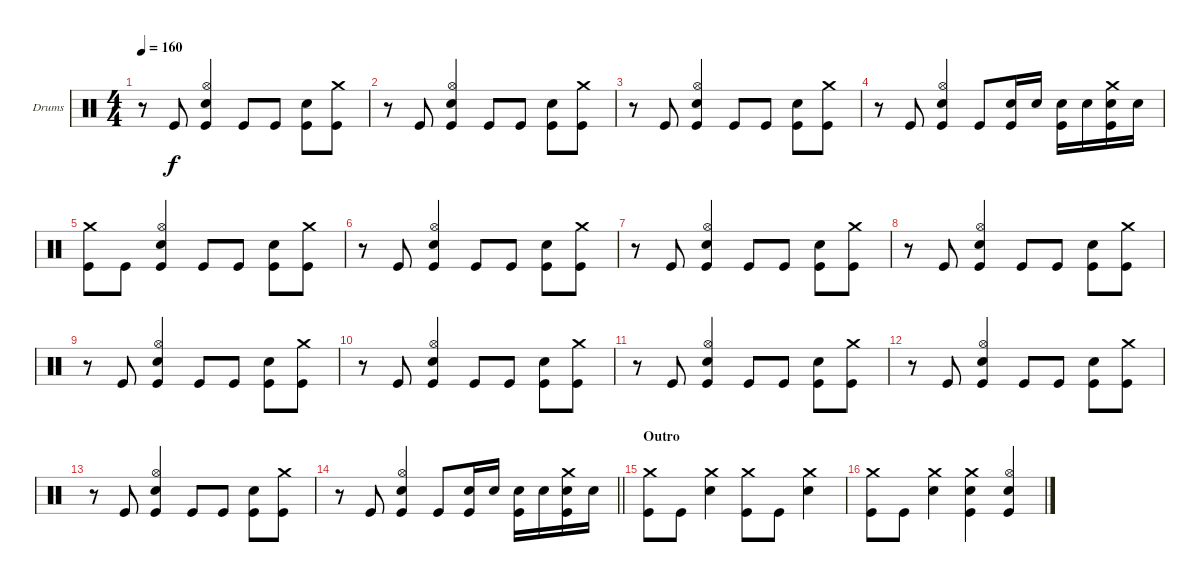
\bracketExtendMode groupsimilarinstruments
\firstSystemTrackNameOrientation horizontal
\otherSystemsTrackNameOrientation horizontal
\track ("Drum" "Drums") {instrument percussion}
\staff {score}
\articulation defaults
\ts (4 4)
\tempo 160
\clef neutral
\ks c
r.8{dy f} "Kick (hit)".8 ("Hi-Hat (open)" "Snare (hit) 2" "Kick (hit)").4 "Kick (hit)".8 "Kick (hit)".8 ("Snare (hit) 2" "Kick (hit)").8 ("Crash medium (hit)" "Kick (hit)").8 |
r.8 "Kick (hit)".8 ("Hi-Hat (open)" "Snare (hit) 2" "Kick (hit)").4 "Kick (hit)".8 "Kick (hit)".8 ("Snare (hit) 2" "Kick (hit)").8 ("Crash medium (hit)" "Kick (hit)").8 |
r.8 "Kick (hit)".8 ("Hi-Hat (open)" "Snare (hit) 2" "Kick (hit)").4 "Kick (hit)".8 "Kick (hit)".8 ("Snare (hit) 2" "Kick (hit)").8 ("Crash medium (hit)" "Kick (hit)").8 |
r.8 "Kick (hit)".8 ("Hi-Hat (open)" "Snare (hit) 2" "Kick (hit)").4 "Kick (hit)".8 ("Snare (hit) 2" "Kick (hit)").16 "Snare (hit) 2".16 ("Snare (hit) 2" "Kick (hit)").16 "Snare (hit) 2".16 ("Crash medium (hit)" "Snare (hit) 2" "Kick (hit)").16 "Snare (hit) 2".16 |
("Crash medium (hit)" "Kick (hit)").8 "Kick (hit)".8 ("Hi-Hat (open)" "Snare (hit) 2" "Kick (hit)").4 "Kick (hit)".8 "Kick (hit)".8 ("Snare (hit) 2" "Kick (hit)").8 ("Crash medium (hit)" "Kick (hit)").8 |
r.8 "Kick (hit)".8 ("Hi-Hat (open)" "Snare (hit) 2" "Kick (hit)").4 "Kick (hit)".8 "Kick (hit)".8 ("Snare (hit) 2" "Kick (hit)").8 ("Crash medium (hit)" "Kick (hit)").8 |
r.8 "Kick (hit)".8 ("Hi-Hat (open)" "Snare (hit) 2" "Kick (hit)").4 "Kick (hit)".8 "Kick (hit)".8 ("Snare (hit) 2" "Kick (hit)").8 ("Crash medium (hit)" "Kick (hit)").8 |
r.8 "Kick (hit)".8 ("Hi-Hat (open)" "Snare (hit) 2" "Kick (hit)").4 "Kick (hit)".8 "Kick (hit)".8 ("Snare (hit) 2" "Kick (hit)").8 ("Crash medium (hit)" "Kick (hit)").8 |
r.8 "Kick (hit)".8 ("Hi-Hat (open)" "Snare (hit) 2" "Kick (hit)").4 "Kick (hit)".8 "Kick (hit)".8 ("Snare (hit) 2" "Kick (hit)").8 ("Crash medium (hit)" "Kick (hit)").8 |
r.8 "Kick (hit)".8 ("Hi-Hat (open)" "Snare (hit) 2" "Kick (hit)").4 "Kick (hit)".8 "Kick (hit)".8 ("Snare (hit) 2" "Kick (hit)").8 ("Crash medium (hit)" "Kick (hit)").8 |
r.8 "Kick (hit)".8 ("Hi-Hat (open)" "Snare (hit) 2" "Kick (hit)").4 "Kick (hit)".8 "Kick (hit)".8 ("Snare (hit) 2" "Kick (hit)").8 ("Crash medium (hit)" "Kick (hit)").8 |
r.8 "Kick (hit)".8 ("Hi-Hat (open)" "Snare (hit) 2" "Kick (hit)").4 "Kick (hit)".8 "Kick (hit)".8 ("Snare (hit) 2" "Kick (hit)").8 ("Crash medium (hit)" "Kick (hit)").8 |
r.8 "Kick (hit)".8 ("Hi-Hat (open)" "Snare (hit) 2" "Kick (hit)").4 "Kick (hit)".8 "Kick (hit)".8 ("Snare (hit) 2" "Kick (hit)").8 ("Crash medium (hit)" "Kick (hit)").8 |
\barLineRight lightlight
r.8 "Kick (hit)".8 ("Hi-Hat (open)" "Snare (hit) 2" "Kick (hit)").4 "Kick (hit)".8 ("Snare (hit) 2" "Kick (hit)").16 "Snare (hit) 2".16 ("Snare (hit) 2" "Kick (hit)").16 "Snare (hit) 2".16 ("Crash medium (hit)" "Snare (hit) 2" "Kick (hit)").16 "Snare (hit) 2".16 |
\section ("" "Outro")
("Crash medium (hit)" "Kick (hit)").8 "Kick (hit)".8 ("Crash medium (hit)" "Snare (hit) 2").4 ("Crash medium (hit)" "Kick (hit)").8 "Kick (hit)".8 ("Crash medium (hit)" "Snare (hit) 2").4 |
("Crash medium (hit)" "Kick (hit)").8 "Kick (hit)".8 ("Crash medium (hit)" "Snare (hit) 2").4 ("Crash medium (hit)" "Snare (hit) 2" "Kick (hit)").4 ("Hi-Hat (open)" "Snare (hit) 2" "Kick (hit)").4
